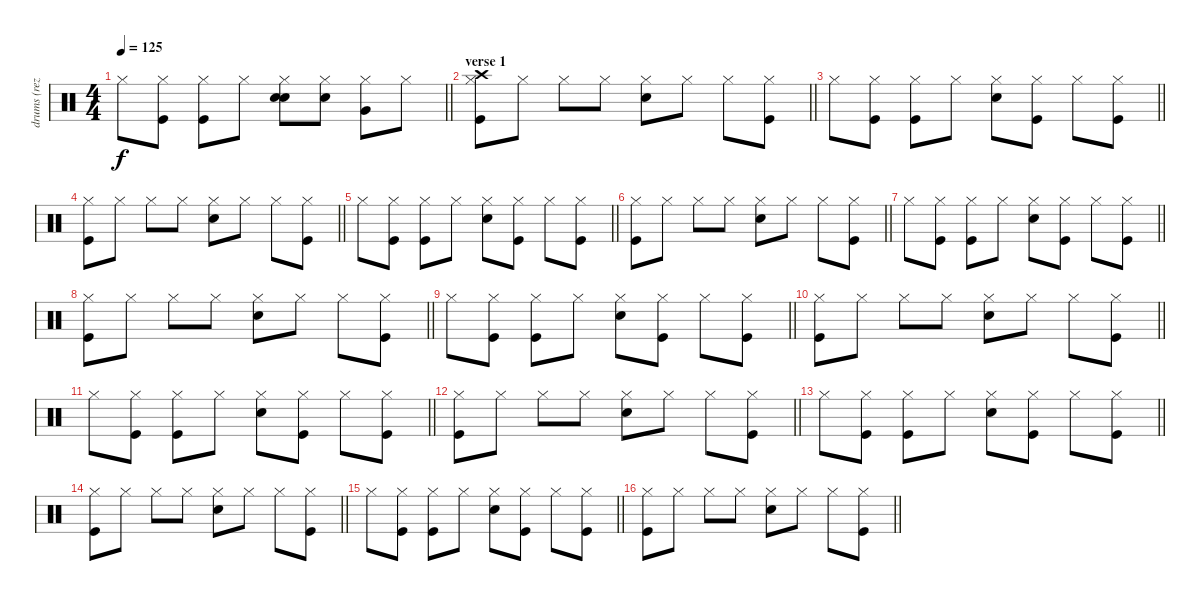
\track ("drums (reza)" "drums (rez") {instrument percussion}
\staff {score}
\articulation defaults
\ts (4 4)
\tempo 125
\clef neutral
\barLineRight lightlight
\ks c "Hi-Hat (closed)".8{dy f}
("Hi-Hat (closed)" "Kick (hit)").8 ("Hi-Hat (closed)" "Kick (hit)").8 "Hi-Hat (closed)".8 ("Hi-Hat (closed)" "Snare (hit) 2" "Snare (hit) 2").8 ("Hi-Hat (closed)" "Snare (hit) 2").8 ("Hi-Hat (closed)" "Very Low Tom (hit)").8 "Hi-Hat (closed)".8 |
\section ("" "verse 1")
\barLineRight lightlight
("Hi-Hat (closed)" "Kick (hit)" "Crash high (hit)").8 "Hi-Hat (closed)".8 "Hi-Hat (closed)".8 "Hi-Hat (closed)".8 ("Hi-Hat (closed)" "Snare (hit) 2").8 "Hi-Hat (closed)".8 "Hi-Hat (closed)".8 ("Hi-Hat (closed)" "Kick (hit)").8 |
\barLineRight lightlight "Hi-Hat (closed)".8
("Hi-Hat (closed)" "Kick (hit)").8 ("Hi-Hat (closed)" "Kick (hit)").8 "Hi-Hat (closed)".8 ("Hi-Hat (closed)" "Snare (hit) 2").8 ("Hi-Hat (closed)" "Kick (hit)").8 "Hi-Hat (closed)".8 ("Hi-Hat (closed)" "Kick (hit)").8 |
\barLineRight lightlight
("Hi-Hat (closed)" "Kick (hit)").8 "Hi-Hat (closed)".8 "Hi-Hat (closed)".8 "Hi-Hat (closed)".8 ("Hi-Hat (closed)" "Snare (hit) 2").8 "Hi-Hat (closed)".8 "Hi-Hat (closed)".8 ("Hi-Hat (closed)" "Kick (hit)").8 |
\barLineRight lightlight "Hi-Hat (closed)".8
("Hi-Hat (closed)" "Kick (hit)").8 ("Hi-Hat (closed)" "Kick (hit)").8 "Hi-Hat (closed)".8 ("Hi-Hat (closed)" "Snare (hit) 2").8 ("Hi-Hat (closed)" "Kick (hit)").8 "Hi-Hat (closed)".8 ("Hi-Hat (closed)" "Kick (hit)").8 |
\barLineRight lightlight
("Hi-Hat (closed)" "Kick (hit)").8 "Hi-Hat (closed)".8 "Hi-Hat (closed)".8 "Hi-Hat (closed)".8 ("Hi-Hat (closed)" "Snare (hit) 2").8 "Hi-Hat (closed)".8 "Hi-Hat (closed)".8 ("Hi-Hat (closed)" "Kick (hit)").8 |
\barLineRight lightlight "Hi-Hat (closed)".8
("Hi-Hat (closed)" "Kick (hit)").8 ("Hi-Hat (closed)" "Kick (hit)").8 "Hi-Hat (closed)".8 ("Hi-Hat (closed)" "Snare (hit) 2").8 ("Hi-Hat (closed)" "Kick (hit)").8 "Hi-Hat (closed)".8 ("Hi-Hat (closed)" "Kick (hit)").8 |
\barLineRight lightlight
("Hi-Hat (closed)" "Kick (hit)").8 "Hi-Hat (closed)".8 "Hi-Hat (closed)".8 "Hi-Hat (closed)".8 ("Hi-Hat (closed)" "Snare (hit) 2").8 "Hi-Hat (closed)".8 "Hi-Hat (closed)".8 ("Hi-Hat (closed)" "Kick (hit)").8 |
\barLineRight lightlight "Hi-Hat (closed)".8
("Hi-Hat (closed)" "Kick (hit)").8 ("Hi-Hat (closed)" "Kick (hit)").8 "Hi-Hat (closed)".8 ("Hi-Hat (closed)" "Snare (hit) 2").8 ("Hi-Hat (closed)" "Kick (hit)").8 "Hi-Hat (closed)".8 ("Hi-Hat (closed)" "Kick (hit)").8 |
\barLineRight lightlight
("Hi-Hat (closed)" "Kick (hit)").8 "Hi-Hat (closed)".8 "Hi-Hat (closed)".8 "Hi-Hat (closed)".8 ("Hi-Hat (closed)" "Snare (hit) 2").8 "Hi-Hat (closed)".8 "Hi-Hat (closed)".8 ("Hi-Hat (closed)" "Kick (hit)").8 |
\barLineRight lightlight "Hi-Hat (closed)".8
("Hi-Hat (closed)" "Kick (hit)").8 ("Hi-Hat (closed)" "Kick (hit)").8 "Hi-Hat (closed)".8 ("Hi-Hat (closed)" "Snare (hit) 2").8 ("Hi-Hat (closed)" "Kick (hit)").8 "Hi-Hat (closed)".8 ("Hi-Hat (closed)" "Kick (hit)").8 |
\barLineRight lightlight
("Hi-Hat (closed)" "Kick (hit)").8 "Hi-Hat (closed)".8 "Hi-Hat (closed)".8 "Hi-Hat (closed)".8 ("Hi-Hat (closed)" "Snare (hit) 2").8 "Hi-Hat (closed)".8 "Hi-Hat (closed)".8 ("Hi-Hat (closed)" "Kick (hit)").8 |
\barLineRight lightlight "Hi-Hat (closed)".8
("Hi-Hat (closed)" "Kick (hit)").8 ("Hi-Hat (closed)" "Kick (hit)").8 "Hi-Hat (closed)".8 ("Hi-Hat (closed)" "Snare (hit) 2").8 ("Hi-Hat (closed)" "Kick (hit)").8 "Hi-Hat (closed)".8 ("Hi-Hat (closed)" "Kick (hit)").8 |
\barLineRight lightlight
("Hi-Hat (closed)" "Kick (hit)").8 "Hi-Hat (closed)".8 "Hi-Hat (closed)".8 "Hi-Hat (closed)".8 ("Hi-Hat (closed)" "Snare (hit) 2").8 "Hi-Hat (closed)".8 "Hi-Hat (closed)".8 ("Hi-Hat (closed)" "Kick (hit)").8 |
\barLineRight lightlight "Hi-Hat (closed)".8
("Hi-Hat (closed)" "Kick (hit)").8 ("Hi-Hat (closed)" "Kick (hit)").8 "Hi-Hat (closed)".8 ("Hi-Hat (closed)" "Snare (hit) 2").8 ("Hi-Hat (closed)" "Kick (hit)").8 "Hi-Hat (closed)".8 ("Hi-Hat (closed)" "Kick (hit)").8 |
\barLineRight lightlight
("Hi-Hat (closed)" "Kick (hit)").8 "Hi-Hat (closed)".8 "Hi-Hat (closed)".8 "Hi-Hat (closed)".8 ("Hi-Hat (closed)" "Snare (hit) 2").8 "Hi-Hat (closed)".8 "Hi-Hat (closed)".8 ("Hi-Hat (closed)" "Kick (hit)").8
